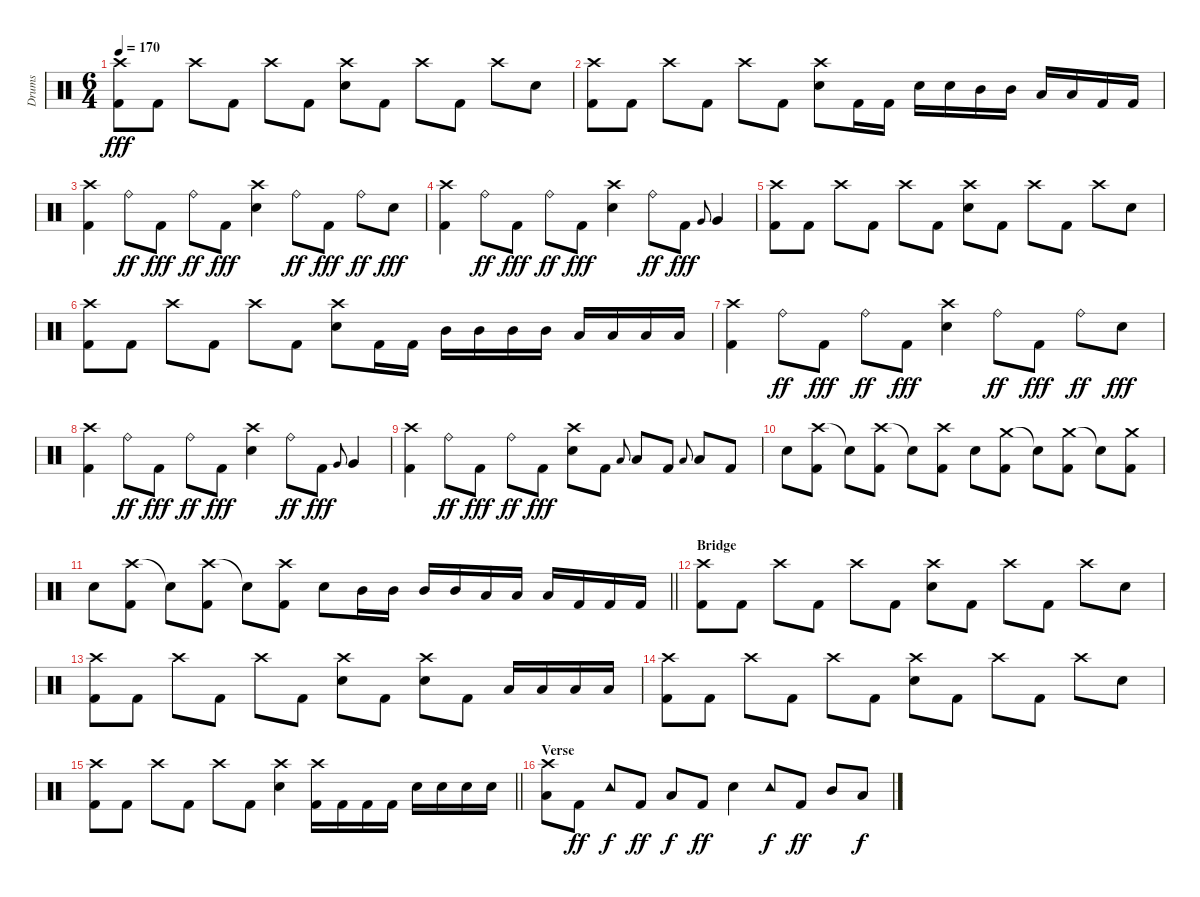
\track ("Drums" "Drums") {instrument percussion}
\staff {score}
\articulation defaults
\ts (6 4)
\tempo 170
\clef neutral
\ks c
("Crash high (hit)" "Kick (hit) 2").8{dy fff} "Kick (hit) 2".8 "Crash high (hit)".8 "Kick (hit) 2".8 "Crash high (hit)".8 "Kick (hit) 2".8 ("Crash high (hit)" "Snare (hit) 2").8 "Kick (hit) 2".8 "Crash high (hit)".8 "Kick (hit) 2".8 "Crash high (hit)".8 "Snare (hit) 2".8 |
("Crash high (hit)" "Kick (hit) 2").8 "Kick (hit) 2".8 "Crash high (hit)".8 "Kick (hit) 2".8 "Crash high (hit)".8 "Kick (hit) 2".8 ("Crash high (hit)" "Snare (hit) 2").8 "Kick (hit) 2".16 "Kick (hit) 2".16 "Snare (hit) 2".16 "Snare (hit) 2".16 "Mid Tom (hit)".16 "Mid Tom (hit)".16 "Low Tom (hit)".16 "Low Tom (hit)".16 "Kick (hit) 2".16 "Kick (hit) 2".16 |
("Crash high (hit)" "Kick (hit) 2").4 "Ride (bell)".8{dy ff} "Kick (hit) 2".8{dy fff} "Ride (bell)".8{dy ff} "Kick (hit) 2".8{dy fff} ("Crash high (hit)" "Snare (hit) 2").4 "Ride (bell)".8{dy ff} "Kick (hit) 2".8{dy fff} "Ride (bell)".8{dy ff} "Snare (hit) 2".8{dy fff} |
("Crash high (hit)" "Kick (hit) 2").4 "Ride (bell)".8{dy ff} "Kick (hit) 2".8{dy fff} "Ride (bell)".8{dy ff} "Kick (hit) 2".8{dy fff} ("Crash high (hit)" "Snare (hit) 2").4 "Ride (bell)".8{dy ff} "Kick (hit) 2".8{dy fff} "Very Low Tom (hit)".8{gr onbeat} "Very Low Tom (hit)".4 |
("Crash high (hit)" "Kick (hit) 2").8 "Kick (hit) 2".8 "Crash high (hit)".8 "Kick (hit) 2".8 "Crash high (hit)".8 "Kick (hit) 2".8 ("Crash high (hit)" "Snare (hit) 2").8 "Kick (hit) 2".8 "Crash high (hit)".8 "Kick (hit) 2".8 "Crash high (hit)".8 "Snare (hit) 2".8 |
("Crash high (hit)" "Kick (hit) 2").8 "Kick (hit) 2".8 "Crash high (hit)".8 "Kick (hit) 2".8 "Crash high (hit)".8 "Kick (hit) 2".8 ("Crash high (hit)" "Snare (hit) 2").8 "Kick (hit) 2".16 "Kick (hit) 2".16 "Mid Tom (hit)".16 "Mid Tom (hit)".16 "Mid Tom (hit)".16 "Mid Tom (hit)".16 "Low Tom (hit)".16 "Low Tom (hit)".16 "Low Tom (hit)".16 "Low Tom (hit)".16 |
("Crash high (hit)" "Kick (hit) 2").4 "Ride (bell)".8{dy ff} "Kick (hit) 2".8{dy fff} "Ride (bell)".8{dy ff} "Kick (hit) 2".8{dy fff} ("Crash high (hit)" "Snare (hit) 2").4 "Ride (bell)".8{dy ff} "Kick (hit) 2".8{dy fff} "Ride (bell)".8{dy ff} "Snare (hit) 2".8{dy fff} |
("Crash high (hit)" "Kick (hit) 2").4 "Ride (bell)".8{dy ff} "Kick (hit) 2".8{dy fff} "Ride (bell)".8{dy ff} "Kick (hit) 2".8{dy fff} ("Crash high (hit)" "Snare (hit) 2").4 "Ride (bell)".8{dy ff} "Kick (hit) 2".8{dy fff} "Very Low Tom (hit)".8{gr onbeat} "Very Low Tom (hit)".4 |
("Crash high (hit)" "Kick (hit) 2").4 "Ride (bell)".8{dy ff} "Kick (hit) 2".8{dy fff} "Ride (bell)".8{dy ff} "Kick (hit) 2".8{dy fff} ("Crash high (hit)" "Snare (hit) 2").8 "Kick (hit) 2".8 "Low Tom (hit)".8{gr onbeat} "Low Tom (hit)".8 "Kick (hit) 2".8 "Low Tom (hit)".8{gr onbeat} "Low Tom (hit)".8 "Kick (hit) 2".8 |
"Snare (hit) 2".8 ("Crash high (hit)" "Kick (hit) 2").8 "Snare (hit)"{t}.8 ("Crash high (hit)" "Kick (hit) 2").8 "Snare (hit)"{t}.8 ("Crash high (hit)" "Kick (hit) 2").8 "Snare (hit) 2".8 ("Crash medium (hit)" "Kick (hit) 2").8 "Snare (hit)"{t}.8 ("Crash medium (hit)" "Kick (hit) 2").8 "Snare (hit)"{t}.8 ("Crash medium (hit)" "Kick (hit) 2").8 |
\barLineRight lightlight "Snare (hit) 2".8
("Crash high (hit)" "Kick (hit) 2").8 "Snare (hit)"{t}.8 ("Crash high (hit)" "Kick (hit) 2").8 "Snare (hit)"{t}.8 ("Crash high (hit)" "Kick (hit) 2").8 "Snare (hit) 2".8 "Mid Tom (hit)".16 "Mid Tom (hit)".16 "Mid Tom (hit)".16 "Mid Tom (hit)".16 "Low Tom (hit)".16 "Low Tom (hit)".16 "Low Tom (hit)".16 "Kick (hit) 2".16 "Kick (hit) 2".16 "Kick (hit) 2".16 |
\section ("" "Bridge")
("Crash high (hit)" "Kick (hit) 2").8 "Kick (hit) 2".8 "Crash high (hit)".8 "Kick (hit) 2".8 "Crash high (hit)".8 "Kick (hit) 2".8 ("Crash high (hit)" "Snare (hit) 2").8 "Kick (hit) 2".8 "Crash high (hit)".8 "Kick (hit) 2".8 "Crash high (hit)".8 "Snare (hit) 2".8 |
("Crash high (hit)" "Kick (hit) 2").8 "Kick (hit) 2".8 "Crash high (hit)".8 "Kick (hit) 2".8 "Crash high (hit)".8 "Kick (hit) 2".8 ("Crash high (hit)" "Snare (hit) 2").8 "Kick (hit) 2".8 ("Crash high (hit)" "Snare (hit) 2").8 "Kick (hit) 2".8 "Low Tom (hit)".16 "Low Tom (hit)".16 "Low Tom (hit)".16 "Low Tom (hit)".16 |
("Crash high (hit)" "Kick (hit) 2").8 "Kick (hit) 2".8 "Crash high (hit)".8 "Kick (hit) 2".8 "Crash high (hit)".8 "Kick (hit) 2".8 ("Crash high (hit)" "Snare (hit) 2").8 "Kick (hit) 2".8 "Crash high (hit)".8 "Kick (hit) 2".8 "Crash high (hit)".8 "Snare (hit) 2".8 |
\barLineRight lightlight
("Crash high (hit)" "Kick (hit) 2").8 "Kick (hit) 2".8 "Crash high (hit)".8 "Kick (hit) 2".8 "Crash high (hit)".8 "Kick (hit) 2".8 ("Crash high (hit)" "Snare (hit) 2").4 ("Crash high (hit)" "Kick (hit) 2").16 "Kick (hit) 2".16 "Kick (hit) 2".16 "Kick (hit) 2".16 "Snare (hit) 2".16 "Snare (hit) 2".16 "Snare (hit) 2".16 "Snare (hit) 2".16 |
\section ("" "Verse")
("Crash high (hit)" "Low Tom (hit)").8 "Kick (hit) 2".8{dy ff} "Tambourine (hit)".8{dy f} "Kick (hit) 2".8{dy ff} "Low Tom (hit)".8{dy f} "Kick (hit) 2".8{dy ff} "Snare (hit) 2".4 "Tambourine (hit)".8{dy f} "Kick (hit) 2".8{dy ff} "Mid Tom (hit)".8 "Low Tom (hit)".8{dy f}
